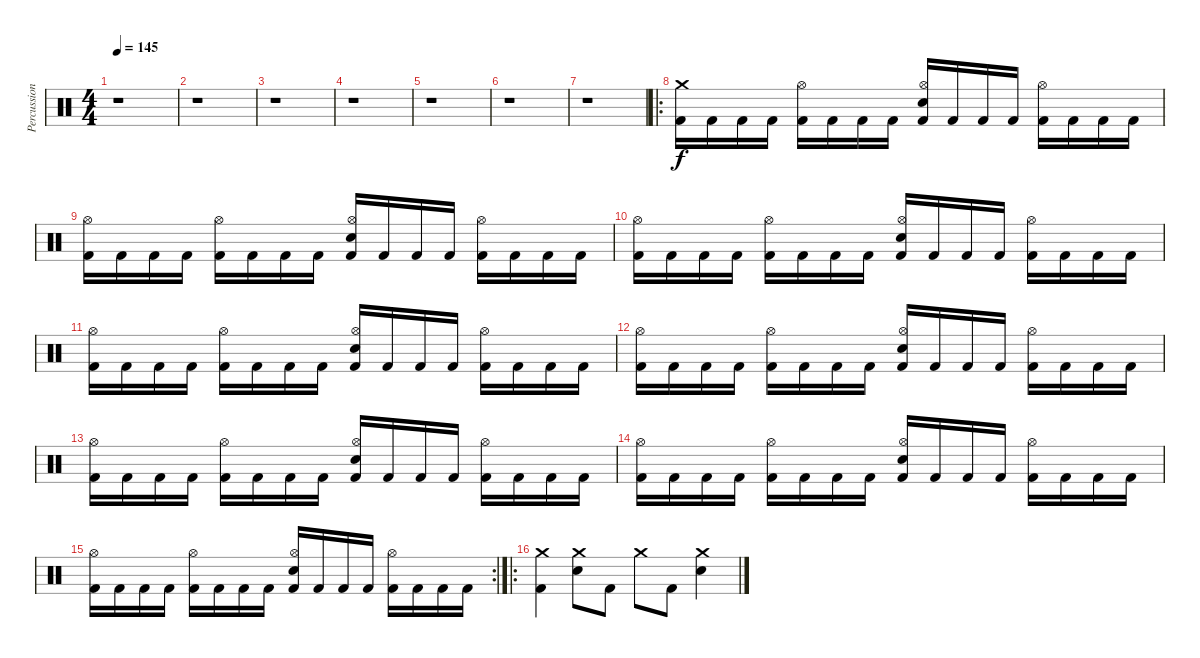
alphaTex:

\track ("Percussion" "Percussion") {instrument percussion}
\staff {score}
\articulation defaults
\ts (4 4)
\tempo 145
\clef neutral
\ks c
r.1{dy f} |
r.1 |
r.1 |
r.1 |
r.1 |
r.1 |
r.1 |
\ro
("Kick (hit) 2" "Crash medium (hit)").16 "Kick (hit) 2".16 "Kick (hit) 2".16 "Kick (hit) 2".16 ("Kick (hit) 2" "Hi-Hat (open)").16 "Kick (hit) 2".16 "Kick (hit) 2".16 "Kick (hit) 2".16 ("Kick (hit) 2" "Electric Snare (hit)" "Hi-Hat (open)").16 "Kick (hit) 2".16 "Kick (hit) 2".16 "Kick (hit) 2".16 ("Kick (hit) 2" "Hi-Hat (open)").16 "Kick (hit) 2".16 "Kick (hit) 2".16 "Kick (hit) 2".16 |
("Kick (hit) 2" "Hi-Hat (open)").16 "Kick (hit) 2".16 "Kick (hit) 2".16 "Kick (hit) 2".16 ("Kick (hit) 2" "Hi-Hat (open)").16 "Kick (hit) 2".16 "Kick (hit) 2".16 "Kick (hit) 2".16 ("Kick (hit) 2" "Electric Snare (hit)" "Hi-Hat (open)").16 "Kick (hit) 2".16 "Kick (hit) 2".16 "Kick (hit) 2".16 ("Kick (hit) 2" "Hi-Hat (open)").16 "Kick (hit) 2".16 "Kick (hit) 2".16 "Kick (hit) 2".16 |
("Kick (hit) 2" "Hi-Hat (open)").16 "Kick (hit) 2".16 "Kick (hit) 2".16 "Kick (hit) 2".16 ("Kick (hit) 2" "Hi-Hat (open)").16 "Kick (hit) 2".16 "Kick (hit) 2".16 "Kick (hit) 2".16 ("Kick (hit) 2" "Electric Snare (hit)" "Hi-Hat (open)").16 "Kick (hit) 2".16 "Kick (hit) 2".16 "Kick (hit) 2".16 ("Kick (hit) 2" "Hi-Hat (open)").16 "Kick (hit) 2".16 "Kick (hit) 2".16 "Kick (hit) 2".16 |
("Kick (hit) 2" "Hi-Hat (open)").16 "Kick (hit) 2".16 "Kick (hit) 2".16 "Kick (hit) 2".16 ("Kick (hit) 2" "Hi-Hat (open)").16 "Kick (hit) 2".16 "Kick (hit) 2".16 "Kick (hit) 2".16 ("Kick (hit) 2" "Electric Snare (hit)" "Hi-Hat (open)").16 "Kick (hit) 2".16 "Kick (hit) 2".16 "Kick (hit) 2".16 ("Kick (hit) 2" "Hi-Hat (open)").16 "Kick (hit) 2".16 "Kick (hit) 2".16 "Kick (hit) 2".16 |
("Kick (hit) 2" "Hi-Hat (open)").16 "Kick (hit) 2".16 "Kick (hit) 2".16 "Kick (hit) 2".16 ("Kick (hit) 2" "Hi-Hat (open)").16 "Kick (hit) 2".16 "Kick (hit) 2".16 "Kick (hit) 2".16 ("Kick (hit) 2" "Electric Snare (hit)" "Hi-Hat (open)").16 "Kick (hit) 2".16 "Kick (hit) 2".16 "Kick (hit) 2".16 ("Kick (hit) 2" "Hi-Hat (open)").16 "Kick (hit) 2".16 "Kick (hit) 2".16 "Kick (hit) 2".16 |
("Kick (hit) 2" "Hi-Hat (open)").16 "Kick (hit) 2".16 "Kick (hit) 2".16 "Kick (hit) 2".16 ("Kick (hit) 2" "Hi-Hat (open)").16 "Kick (hit) 2".16 "Kick (hit) 2".16 "Kick (hit) 2".16 ("Kick (hit) 2" "Electric Snare (hit)" "Hi-Hat (open)").16 "Kick (hit) 2".16 "Kick (hit) 2".16 "Kick (hit) 2".16 ("Kick (hit) 2" "Hi-Hat (open)").16 "Kick (hit) 2".16 "Kick (hit) 2".16 "Kick (hit) 2".16 |
("Kick (hit) 2" "Hi-Hat (open)").16 "Kick (hit) 2".16 "Kick (hit) 2".16 "Kick (hit) 2".16 ("Kick (hit) 2" "Hi-Hat (open)").16 "Kick (hit) 2".16 "Kick (hit) 2".16 "Kick (hit) 2".16 ("Kick (hit) 2" "Electric Snare (hit)" "Hi-Hat (open)").16 "Kick (hit) 2".16 "Kick (hit) 2".16 "Kick (hit) 2".16 ("Kick (hit) 2" "Hi-Hat (open)").16 "Kick (hit) 2".16 "Kick (hit) 2".16 "Kick (hit) 2".16 |
\rc 2
("Kick (hit) 2" "Hi-Hat (open)").16 "Kick (hit) 2".16 "Kick (hit) 2".16 "Kick (hit) 2".16 ("Kick (hit) 2" "Hi-Hat (open)").16 "Kick (hit) 2".16 "Kick (hit) 2".16 "Kick (hit) 2".16 ("Kick (hit) 2" "Electric Snare (hit)" "Hi-Hat (open)").16 "Kick (hit) 2".16 "Kick (hit) 2".16 "Kick (hit) 2".16 ("Kick (hit) 2" "Hi-Hat (open)").16 "Kick (hit) 2".16 "Kick (hit) 2".16 "Kick (hit) 2".16 |
\ro
("Kick (hit) 2" "Crash medium (hit)").4 ("Electric Snare (hit)" "Crash medium (hit)").8 "Kick (hit) 2".8 "Crash medium (hit)".8 "Kick (hit) 2".8 ("Electric Snare (hit)" "Crash medium (hit)").4
